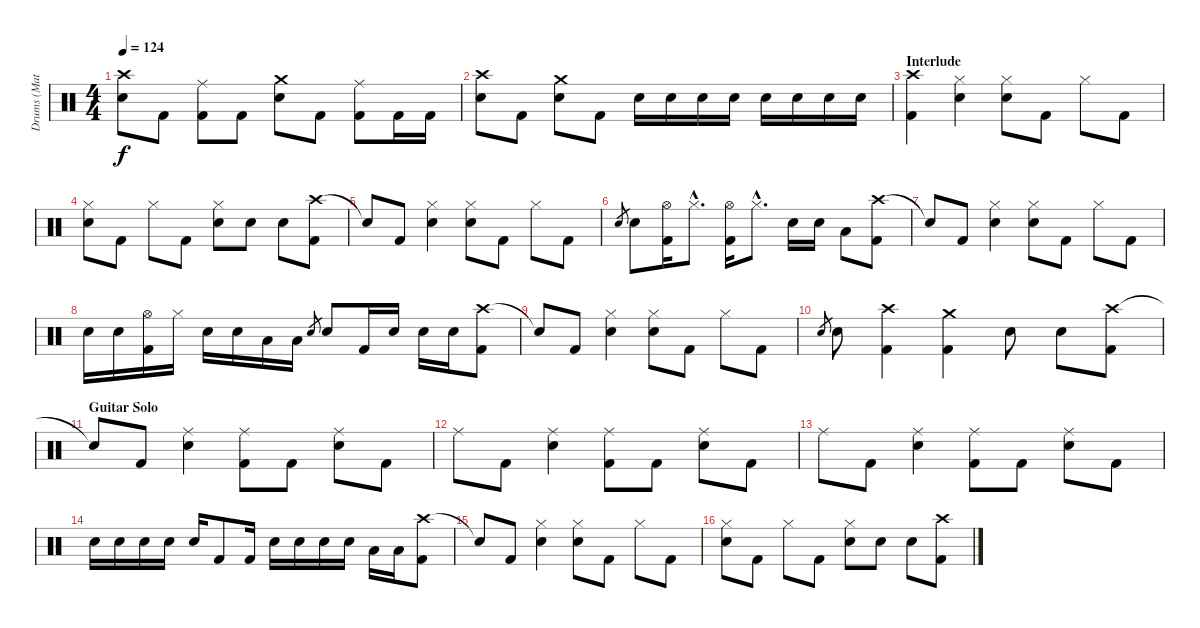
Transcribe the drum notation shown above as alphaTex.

\track ("Drums (Matt)" "Drums (Mat") {instrument percussion}
\staff {score}
\articulation defaults
\ts (4 4)
\tempo 124
\clef neutral
\ks c
("Crash high (hit)" "Snare (hit) 2").8{dy f} "Kick (hit) 2".8 ("Ride (middle)" "Kick (hit) 2").8 "Kick (hit) 2".8 ("Crash medium (hit)" "Snare (hit) 2").8 "Kick (hit) 2".8 ("Ride (middle)" "Kick (hit) 2").8 "Kick (hit) 2".16 "Kick (hit) 2".16 |
("Crash high (hit)" "Snare (hit) 2").8 "Kick (hit) 2".8 ("Crash medium (hit)" "Snare (hit) 2").8 "Kick (hit) 2".8 "Snare (hit) 2".16 "Snare (hit) 2".16 "Snare (hit) 2".16 "Snare (hit) 2".16 "Snare (hit) 2".16 "Snare (hit) 2".16 "Snare (hit) 2".16 "Snare (hit) 2".16 |
\section ("" "Interlude")
("Crash high (hit)" "Kick (hit) 2").4 ("Hi-Hat (closed)" "Snare (hit) 2").4 ("Hi-Hat (closed)" "Snare (hit) 2").8 "Kick (hit) 2".8 "Hi-Hat (closed)".8 "Kick (hit) 2".8 |
("Hi-Hat (closed)" "Snare (hit) 2").8 "Kick (hit) 2".8 "Hi-Hat (closed)".8 "Kick (hit) 2".8 ("Hi-Hat (closed)" "Snare (hit) 2").8 "Snare (hit) 2".8 "Snare (hit) 2".8 ("Crash high (hit)" "Kick (hit) 2").8 |
"Snare (hit)"{t}.8 "Kick (hit) 2".8 ("Hi-Hat (closed)" "Snare (hit) 2").4 ("Hi-Hat (closed)" "Snare (hit) 2").8 "Kick (hit) 2".8 "Hi-Hat (closed)".8 "Kick (hit) 2".8 |
"Snare (hit) 2".8{gr} "Snare (hit) 2".8 ("Hi-Hat (open)" "Kick (hit) 2").16 "Hi-Hat (closed)"{hac}.8{d} ("Hi-Hat (open)" "Kick (hit) 2").16 "Hi-Hat (closed)"{hac}.8{d} "Snare (hit) 2".16 "Snare (hit) 2".16 "Low Tom (hit)".8 ("Crash high (hit)" "Kick (hit) 2").8 |
"Snare (hit)"{t}.8 "Kick (hit) 2".8 ("Hi-Hat (closed)" "Snare (hit) 2").4 ("Hi-Hat (closed)" "Snare (hit) 2").8 "Kick (hit) 2".8 "Hi-Hat (closed)".8 "Kick (hit) 2".8 |
"Snare (hit) 2".16 "Snare (hit) 2".16 ("Hi-Hat (open)" "Kick (hit) 2").16 "Hi-Hat (closed)".16 "Snare (hit) 2".16 "Snare (hit) 2".16 "Low Tom (hit)".16 "Low Tom (hit)".16 "Snare (hit) 2".8{gr} "Snare (hit) 2".8 "Kick (hit) 2".16 "Snare (hit) 2".16 "Snare (hit) 2".16 "Snare (hit) 2".16 ("Crash high (hit)" "Kick (hit) 2").8 |
"Snare (hit)"{t}.8 "Kick (hit) 2".8 ("Hi-Hat (closed)" "Snare (hit) 2").4 ("Hi-Hat (closed)" "Snare (hit) 2").8 "Kick (hit) 2".8 "Hi-Hat (closed)".8 "Kick (hit) 2".8 |
"Snare (hit) 2".8{gr} "Snare (hit) 2".8 ("Crash high (hit)" "Kick (hit) 2").4 ("Crash medium (hit)" "Kick (hit) 2").4 "Snare (hit) 2".8 "Snare (hit) 2".8 ("Crash high (hit)" "Kick (hit) 2").8 |
\section ("" "Guitar Solo")
"Snare (hit)"{t}.8 "Kick (hit) 2".8 ("Ride (middle)" "Snare (hit) 2").4 ("Ride (middle)" "Kick (hit) 2").8 "Kick (hit) 2".8 ("Ride (middle)" "Snare (hit) 2").8 "Kick (hit) 2".8 |
"Ride (middle)".8 "Kick (hit) 2".8 ("Ride (middle)" "Snare (hit) 2").4 ("Ride (middle)" "Kick (hit) 2").8 "Kick (hit) 2".8 ("Ride (middle)" "Snare (hit) 2").8 "Kick (hit) 2".8 |
"Ride (middle)".8 "Kick (hit) 2".8 ("Ride (middle)" "Snare (hit) 2").4 ("Ride (middle)" "Kick (hit) 2").8 "Kick (hit) 2".8 ("Ride (middle)" "Snare (hit) 2").8 "Kick (hit) 2".8 |
"Snare (hit) 2".16 "Snare (hit) 2".16 "Snare (hit) 2".16 "Snare (hit) 2".16 "Snare (hit) 2".16 "Kick (hit) 2".8 "Kick (hit) 2".16 "Snare (hit) 2".16 "Snare (hit) 2".16 "Snare (hit) 2".16 "Snare (hit) 2".16 "Low Tom (hit)".16 "Low Tom (hit)".16 ("Crash high (hit)" "Kick (hit) 2").8 |
"Snare (hit)"{t}.8 "Kick (hit) 2".8 ("Hi-Hat (closed)" "Snare (hit) 2").4 ("Hi-Hat (closed)" "Snare (hit) 2").8 "Kick (hit) 2".8 "Hi-Hat (closed)".8 "Kick (hit) 2".8 |
("Hi-Hat (closed)" "Snare (hit) 2").8 "Kick (hit) 2".8 "Hi-Hat (closed)".8 "Kick (hit) 2".8 ("Hi-Hat (closed)" "Snare (hit) 2").8 "Snare (hit) 2".8 "Snare (hit) 2".8 ("Crash high (hit)" "Kick (hit) 2").8
